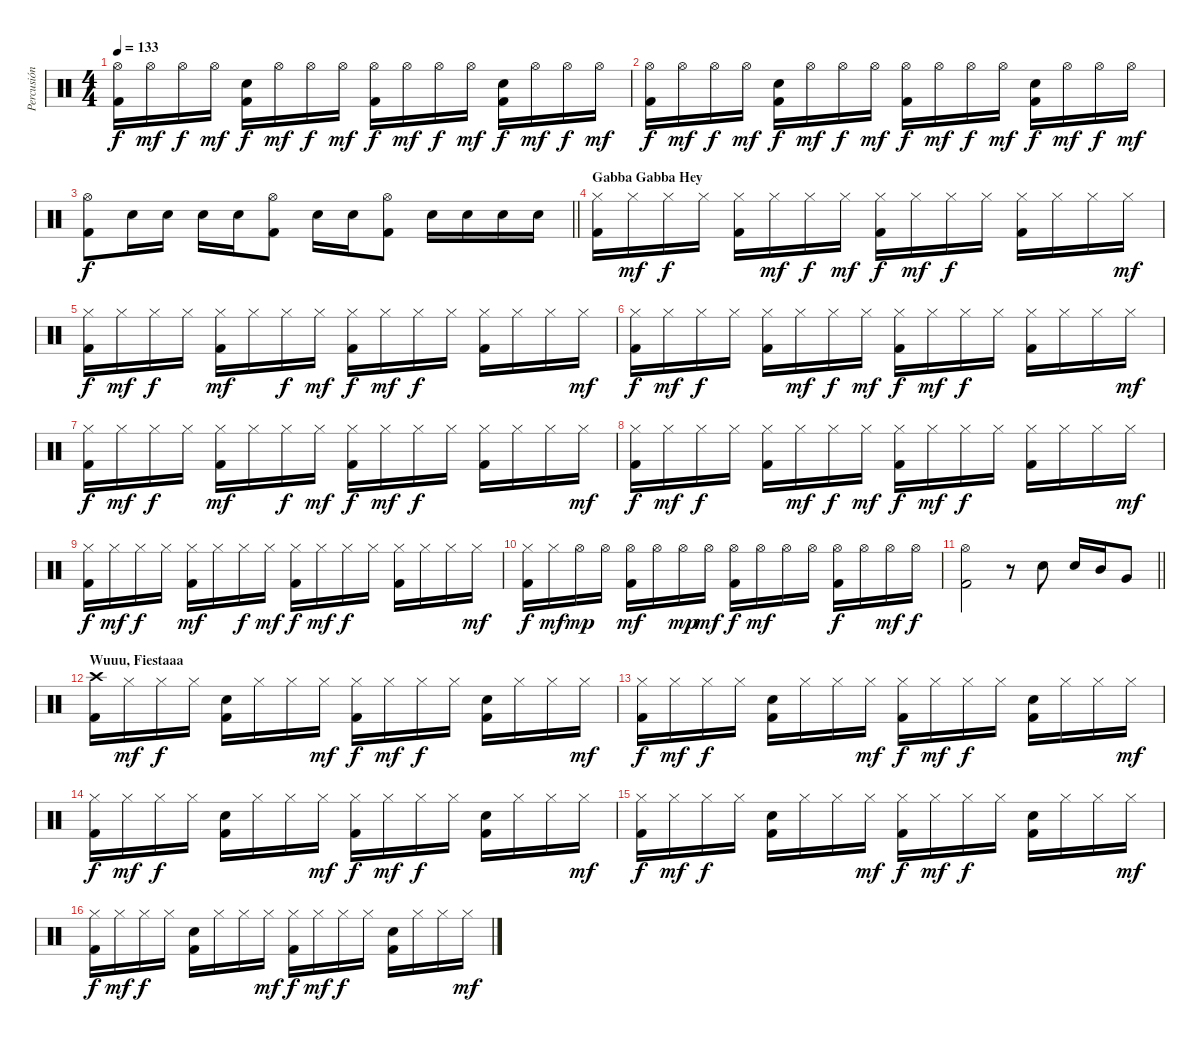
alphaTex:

\track ("Percusión" "Percusión") {instrument percussion}
\staff {score}
\articulation defaults
\ts (4 4)
\tempo 133
\clef neutral
\ks c
("Hi-Hat (open)" "Kick (hit) 2").16{dy f} "Hi-Hat (open)".16{dy mf} "Hi-Hat (open)".16{dy f} "Hi-Hat (open)".16{dy mf} ("Snare (hit) 2" "Kick (hit) 2").16{dy f} "Hi-Hat (open)".16{dy mf} "Hi-Hat (open)".16{dy f} "Hi-Hat (open)".16{dy mf} ("Hi-Hat (open)" "Kick (hit) 2").16{dy f} "Hi-Hat (open)".16{dy mf} "Hi-Hat (open)".16{dy f} "Hi-Hat (open)".16{dy mf} ("Snare (hit) 2" "Kick (hit) 2").16{dy f} "Hi-Hat (open)".16{dy mf} "Hi-Hat (open)".16{dy f} "Hi-Hat (open)".16{dy mf} |
("Hi-Hat (open)" "Kick (hit) 2").16{dy f} "Hi-Hat (open)".16{dy mf} "Hi-Hat (open)".16{dy f} "Hi-Hat (open)".16{dy mf} ("Snare (hit) 2" "Kick (hit) 2").16{dy f} "Hi-Hat (open)".16{dy mf} "Hi-Hat (open)".16{dy f} "Hi-Hat (open)".16{dy mf} ("Hi-Hat (open)" "Kick (hit) 2").16{dy f} "Hi-Hat (open)".16{dy mf} "Hi-Hat (open)".16{dy f} "Hi-Hat (open)".16{dy mf} ("Snare (hit) 2" "Kick (hit) 2").16{dy f} "Hi-Hat (open)".16{dy mf} "Hi-Hat (open)".16{dy f} "Hi-Hat (open)".16{dy mf} |
\barLineRight lightlight
("Hi-Hat (open)" "Kick (hit) 2").8{dy f} "Snare (hit) 2".16 "Snare (hit) 2".16 "Snare (hit) 2".16 "Snare (hit) 2".16 ("Hi-Hat (open)" "Kick (hit) 2").8 "Snare (hit) 2".16 "Snare (hit) 2".16 ("Hi-Hat (open)" "Kick (hit) 2").8 "Snare (hit) 2".16 "Snare (hit) 2".16 "Snare (hit) 2".16 "Snare (hit) 2".16 |
\section ("" "Gabba Gabba Hey")
("Hi-Hat (closed)" "Kick (hit) 2").16 "Hi-Hat (closed)".16{dy mf} "Hi-Hat (closed)".16{dy f} "Hi-Hat (closed)".16 ("Hi-Hat (closed)" "Kick (hit) 2").16 "Hi-Hat (closed)".16{dy mf} "Hi-Hat (closed)".16{dy f} "Hi-Hat (closed)".16{dy mf} ("Hi-Hat (closed)" "Kick (hit) 2").16{dy f} "Hi-Hat (closed)".16{dy mf} "Hi-Hat (closed)".16{dy f} "Hi-Hat (closed)".16 ("Hi-Hat (closed)" "Kick (hit) 2").16 "Hi-Hat (closed)".16 "Hi-Hat (closed)".16 "Hi-Hat (closed)".16{dy mf} |
("Hi-Hat (closed)" "Kick (hit) 2").16{dy f} "Hi-Hat (closed)".16{dy mf} "Hi-Hat (closed)".16{dy f} "Hi-Hat (closed)".16 ("Hi-Hat (closed)" "Kick (hit) 2").16{dy mf} "Hi-Hat (closed)".16 "Hi-Hat (closed)".16{dy f} "Hi-Hat (closed)".16{dy mf} ("Hi-Hat (closed)" "Kick (hit) 2").16{dy f} "Hi-Hat (closed)".16{dy mf} "Hi-Hat (closed)".16{dy f} "Hi-Hat (closed)".16 ("Hi-Hat (closed)" "Kick (hit) 2").16 "Hi-Hat (closed)".16 "Hi-Hat (closed)".16 "Hi-Hat (closed)".16{dy mf} |
("Hi-Hat (closed)" "Kick (hit) 2").16{dy f} "Hi-Hat (closed)".16{dy mf} "Hi-Hat (closed)".16{dy f} "Hi-Hat (closed)".16 ("Hi-Hat (closed)" "Kick (hit) 2").16 "Hi-Hat (closed)".16{dy mf} "Hi-Hat (closed)".16{dy f} "Hi-Hat (closed)".16{dy mf} ("Hi-Hat (closed)" "Kick (hit) 2").16{dy f} "Hi-Hat (closed)".16{dy mf} "Hi-Hat (closed)".16{dy f} "Hi-Hat (closed)".16 ("Hi-Hat (closed)" "Kick (hit) 2").16 "Hi-Hat (closed)".16 "Hi-Hat (closed)".16 "Hi-Hat (closed)".16{dy mf} |
("Hi-Hat (closed)" "Kick (hit) 2").16{dy f} "Hi-Hat (closed)".16{dy mf} "Hi-Hat (closed)".16{dy f} "Hi-Hat (closed)".16 ("Hi-Hat (closed)" "Kick (hit) 2").16{dy mf} "Hi-Hat (closed)".16 "Hi-Hat (closed)".16{dy f} "Hi-Hat (closed)".16{dy mf} ("Hi-Hat (closed)" "Kick (hit) 2").16{dy f} "Hi-Hat (closed)".16{dy mf} "Hi-Hat (closed)".16{dy f} "Hi-Hat (closed)".16 ("Hi-Hat (closed)" "Kick (hit) 2").16 "Hi-Hat (closed)".16 "Hi-Hat (closed)".16 "Hi-Hat (closed)".16{dy mf} |
("Hi-Hat (closed)" "Kick (hit) 2").16{dy f} "Hi-Hat (closed)".16{dy mf} "Hi-Hat (closed)".16{dy f} "Hi-Hat (closed)".16 ("Hi-Hat (closed)" "Kick (hit) 2").16 "Hi-Hat (closed)".16{dy mf} "Hi-Hat (closed)".16{dy f} "Hi-Hat (closed)".16{dy mf} ("Hi-Hat (closed)" "Kick (hit) 2").16{dy f} "Hi-Hat (closed)".16{dy mf} "Hi-Hat (closed)".16{dy f} "Hi-Hat (closed)".16 ("Hi-Hat (closed)" "Kick (hit) 2").16 "Hi-Hat (closed)".16 "Hi-Hat (closed)".16 "Hi-Hat (closed)".16{dy mf} |
("Hi-Hat (closed)" "Kick (hit) 2").16{dy f} "Hi-Hat (closed)".16{dy mf} "Hi-Hat (closed)".16{dy f} "Hi-Hat (closed)".16 ("Hi-Hat (closed)" "Kick (hit) 2").16{dy mf} "Hi-Hat (closed)".16 "Hi-Hat (closed)".16{dy f} "Hi-Hat (closed)".16{dy mf} ("Hi-Hat (closed)" "Kick (hit) 2").16{dy f} "Hi-Hat (closed)".16{dy mf} "Hi-Hat (closed)".16{dy f} "Hi-Hat (closed)".16 ("Hi-Hat (closed)" "Kick (hit) 2").16 "Hi-Hat (closed)".16 "Hi-Hat (closed)".16 "Hi-Hat (closed)".16{dy mf} |
("Hi-Hat (closed)" "Kick (hit) 2").16{dy f} "Hi-Hat (closed)".16{dy mf} "Hi-Hat (open)".16{dy mp} "Hi-Hat (open)".16 ("Hi-Hat (open)" "Kick (hit) 2").16{dy mf} "Hi-Hat (open)".16 "Hi-Hat (open)".16{dy mp} "Hi-Hat (open)".16{dy mf} ("Hi-Hat (open)" "Kick (hit) 2").16{dy f} "Hi-Hat (open)".16{dy mf} "Hi-Hat (open)".16 "Hi-Hat (open)".16 ("Hi-Hat (open)" "Kick (hit) 2").16{dy f} "Hi-Hat (open)".16 "Hi-Hat (open)".16{dy mf} "Hi-Hat (open)".16{dy f} |
\barLineRight lightlight
("Hi-Hat (open)" "Kick (hit) 2").2 r.8 "Snare (hit) 2".8 "Snare (hit) 2".16 "Mid Tom (hit)".16 "Very Low Tom (hit)".8 |
\section ("" "Wuuu, Fiestaaa")
("Crash high (hit)" "Kick (hit) 2").16 "Hi-Hat (closed)".16{dy mf} "Hi-Hat (closed)".16{dy f} "Hi-Hat (closed)".16 ("Snare (hit) 2" "Kick (hit) 2").16 "Hi-Hat (closed)".16 "Hi-Hat (closed)".16 "Hi-Hat (closed)".16{dy mf} ("Hi-Hat (closed)" "Kick (hit) 2").16{dy f} "Hi-Hat (closed)".16{dy mf} "Hi-Hat (closed)".16{dy f} "Hi-Hat (closed)".16 ("Snare (hit) 2" "Kick (hit) 2").16 "Hi-Hat (closed)".16 "Hi-Hat (closed)".16 "Hi-Hat (closed)".16{dy mf} |
("Hi-Hat (closed)" "Kick (hit) 2").16{dy f} "Hi-Hat (closed)".16{dy mf} "Hi-Hat (closed)".16{dy f} "Hi-Hat (closed)".16 ("Snare (hit) 2" "Kick (hit) 2").16 "Hi-Hat (closed)".16 "Hi-Hat (closed)".16 "Hi-Hat (closed)".16{dy mf} ("Hi-Hat (closed)" "Kick (hit) 2").16{dy f} "Hi-Hat (closed)".16{dy mf} "Hi-Hat (closed)".16{dy f} "Hi-Hat (closed)".16 ("Snare (hit) 2" "Kick (hit) 2").16 "Hi-Hat (closed)".16 "Hi-Hat (closed)".16 "Hi-Hat (closed)".16{dy mf} |
("Hi-Hat (closed)" "Kick (hit) 2").16{dy f} "Hi-Hat (closed)".16{dy mf} "Hi-Hat (closed)".16{dy f} "Hi-Hat (closed)".16 ("Snare (hit) 2" "Kick (hit) 2").16 "Hi-Hat (closed)".16 "Hi-Hat (closed)".16 "Hi-Hat (closed)".16{dy mf} ("Hi-Hat (closed)" "Kick (hit) 2").16{dy f} "Hi-Hat (closed)".16{dy mf} "Hi-Hat (closed)".16{dy f} "Hi-Hat (closed)".16 ("Snare (hit) 2" "Kick (hit) 2").16 "Hi-Hat (closed)".16 "Hi-Hat (closed)".16 "Hi-Hat (closed)".16{dy mf} |
("Hi-Hat (closed)" "Kick (hit) 2").16{dy f} "Hi-Hat (closed)".16{dy mf} "Hi-Hat (closed)".16{dy f} "Hi-Hat (closed)".16 ("Snare (hit) 2" "Kick (hit) 2").16 "Hi-Hat (closed)".16 "Hi-Hat (closed)".16 "Hi-Hat (closed)".16{dy mf} ("Hi-Hat (closed)" "Kick (hit) 2").16{dy f} "Hi-Hat (closed)".16{dy mf} "Hi-Hat (closed)".16{dy f} "Hi-Hat (closed)".16 ("Snare (hit) 2" "Kick (hit) 2").16 "Hi-Hat (closed)".16 "Hi-Hat (closed)".16 "Hi-Hat (closed)".16{dy mf} |
("Hi-Hat (closed)" "Kick (hit) 2").16{dy f} "Hi-Hat (closed)".16{dy mf} "Hi-Hat (closed)".16{dy f} "Hi-Hat (closed)".16 ("Snare (hit) 2" "Kick (hit) 2").16 "Hi-Hat (closed)".16 "Hi-Hat (closed)".16 "Hi-Hat (closed)".16{dy mf} ("Hi-Hat (closed)" "Kick (hit) 2").16{dy f} "Hi-Hat (closed)".16{dy mf} "Hi-Hat (closed)".16{dy f} "Hi-Hat (closed)".16 ("Snare (hit) 2" "Kick (hit) 2").16 "Hi-Hat (closed)".16 "Hi-Hat (closed)".16 "Hi-Hat (closed)".16{dy mf}
